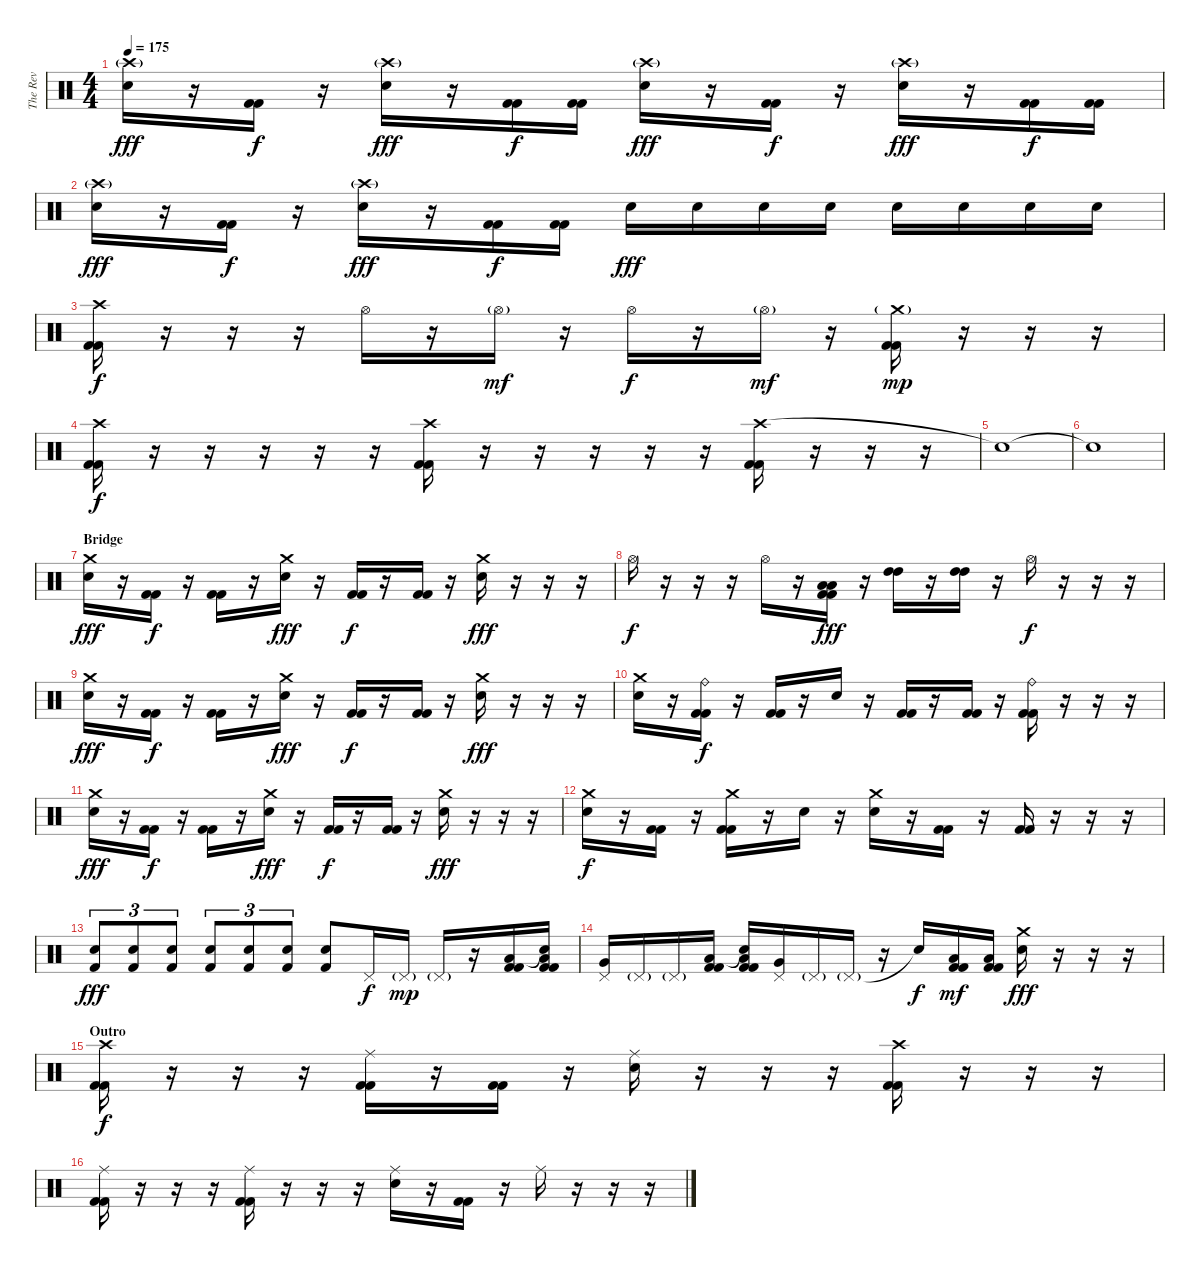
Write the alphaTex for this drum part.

\track ("The Rev" "The Rev") {instrument percussion}
\staff {score}
\articulation defaults
\ts (4 4)
\tempo 175
\clef neutral
\ks c
("Crash high (hit)"{g} "Electric Snare (hit)").16{dy fff} r.16 ("Kick (hit) 2" "Kick (hit) 2").16{dy f} r.16 ("Crash high (hit)"{g} "Electric Snare (hit)").16{dy fff} r.16 ("Kick (hit) 2" "Kick (hit) 2").16{dy f} ("Kick (hit) 2" "Kick (hit) 2").16 ("Crash high (hit)"{g} "Electric Snare (hit)").16{dy fff} r.16 ("Kick (hit) 2" "Kick (hit) 2").16{dy f} r.16 ("Crash high (hit)"{g} "Electric Snare (hit)").16{dy fff} r.16 ("Kick (hit) 2" "Kick (hit) 2").16{dy f} ("Kick (hit) 2" "Kick (hit) 2").16 |
("Crash high (hit)"{g} "Electric Snare (hit)").16{dy fff} r.16 ("Kick (hit) 2" "Kick (hit) 2").16{dy f} r.16 ("Crash high (hit)"{g} "Electric Snare (hit)").16{dy fff} r.16 ("Kick (hit) 2" "Kick (hit) 2").16{dy f} ("Kick (hit) 2" "Kick (hit) 2").16 "Electric Snare (hit)".16{dy fff} "Electric Snare (hit)".16 "Electric Snare (hit)".16 "Electric Snare (hit)".16 "Electric Snare (hit)".16 "Electric Snare (hit)".16 "Electric Snare (hit)".16 "Electric Snare (hit)".16 |
("Crash high (hit)" "Kick (hit) 2" "Kick (hit) 2").16{dy f} r.16 r.16 r.16 "Hi-Hat (open)".16 r.16 "Hi-Hat (open)"{g}.16{dy mf} r.16 "Hi-Hat (open)".16{dy f} r.16 "Hi-Hat (open)"{g}.16{dy mf} r.16 ("Crash medium (hit)"{g} "Kick (hit) 2" "Kick (hit) 2").16{dy mp} r.16 r.16 r.16 |
("Crash high (hit)" "Kick (hit) 2" "Kick (hit) 2").16{dy f} r.16 r.16 r.16 r.16 r.16 ("Crash high (hit)" "Kick (hit) 2" "Kick (hit) 2").16 r.16 r.16 r.16 r.16 r.16 ("Crash high (hit)" "Kick (hit) 2" "Kick (hit) 2").16 r.16 r.16 r.16 |
"Snare (hit)"{t}.1 |
"Snare (hit)"{t}.1 |
\section ("" "Bridge")
("Crash medium (hit)" "Electric Snare (hit)").16{dy fff} r.16 ("Kick (hit) 2" "Kick (hit) 2").16{dy f} r.16 ("Kick (hit) 2" "Kick (hit) 2").16 r.16 ("Crash medium (hit)" "Electric Snare (hit)").16{dy fff} r.16 ("Kick (hit) 2" "Kick (hit) 2").16{dy f} r.16 ("Kick (hit) 2" "Kick (hit) 2").16 r.16 ("Crash medium (hit)" "Electric Snare (hit)").16{dy fff} r.16 r.16 r.16 |
"Hi-Hat (open)".16{dy f} r.16 r.16 r.16 "Hi-Hat (open)".16 r.16 ("Low Tom (hit)" "Low Tom (hit)" "Kick (hit) 2" "Kick (hit) 2").16{dy fff} r.16 ("High Tom (hit)" "High Tom (hit)").16 r.16 ("High Tom (hit)" "High Tom (hit)").16 r.16 "Hi-Hat (open)".16{dy f} r.16 r.16 r.16 |
("Crash medium (hit)" "Electric Snare (hit)").16{dy fff} r.16 ("Kick (hit) 2" "Kick (hit) 2").16{dy f} r.16 ("Kick (hit) 2" "Kick (hit) 2").16 r.16 ("Crash medium (hit)" "Electric Snare (hit)").16{dy fff} r.16 ("Kick (hit) 2" "Kick (hit) 2").16{dy f} r.16 ("Kick (hit) 2" "Kick (hit) 2").16 r.16 ("Crash medium (hit)" "Electric Snare (hit)").16{dy fff} r.16 r.16 r.16 |
("Crash medium (hit)" "Electric Snare (hit)").16 r.16 ("Ride (bell)" "Kick (hit) 2" "Kick (hit) 2").16{dy f} r.16 ("Kick (hit) 2" "Kick (hit) 2").16 r.16 "Electric Snare (hit)".16 r.16 ("Kick (hit) 2" "Kick (hit) 2").16 r.16 ("Kick (hit) 2" "Kick (hit) 2").16 r.16 ("Ride (bell)" "Kick (hit) 2" "Kick (hit) 2").16 r.16 r.16 r.16 |
("Crash medium (hit)" "Electric Snare (hit)").16{dy fff} r.16 ("Kick (hit) 2" "Kick (hit) 2").16{dy f} r.16 ("Kick (hit) 2" "Kick (hit) 2").16 r.16 ("Crash medium (hit)" "Electric Snare (hit)").16{dy fff} r.16 ("Kick (hit) 2" "Kick (hit) 2").16{dy f} r.16 ("Kick (hit) 2" "Kick (hit) 2").16 r.16 ("Crash medium (hit)" "Electric Snare (hit)").16{dy fff} r.16 r.16 r.16 |
("Crash medium (hit)" "Electric Snare (hit)").16{dy f} r.16 ("Kick (hit) 2" "Kick (hit) 2").16 r.16 ("Crash medium (hit)" "Kick (hit) 2" "Kick (hit) 2").16 r.16 "Electric Snare (hit)".16 r.16 ("Crash medium (hit)" "Electric Snare (hit)").16 r.16 ("Kick (hit) 2" "Kick (hit) 2").16 r.16 ("Kick (hit) 2" "Kick (hit) 2").16 r.16 r.16 r.16 |
("Electric Snare (hit)" "Kick (hit) 2").8{tu (3 2) dy fff} ("Electric Snare (hit)" "Kick (hit) 2").8{tu (3 2)} ("Electric Snare (hit)" "Kick (hit) 2").8{tu (3 2)} ("Electric Snare (hit)" "Kick (hit) 2").8{tu (3 2)} ("Electric Snare (hit)" "Kick (hit) 2").8{tu (3 2)} ("Electric Snare (hit)" "Kick (hit) 2").8{tu (3 2)} ("Electric Snare (hit)" "Kick (hit) 2").8 "Pedal Hi-Hat (hit)".16{dy f} "Pedal Hi-Hat (hit)"{g}.16{dy mp} "Pedal Hi-Hat (hit)"{g}.16 r.16 ("Low Tom (hit)" "Kick (hit) 2" "Kick (hit) 2").16 ("Snare (hit)"{t} "Low Tom (hit)" "Kick (hit) 2" "Kick (hit) 2").16 |
("Pedal Hi-Hat (hit)" "Very Low Tom (hit)").16 "Pedal Hi-Hat (hit)"{g}.16 "Pedal Hi-Hat (hit)"{g}.16 ("Low Tom (hit)" "Kick (hit) 2" "Kick (hit) 2").16 ("Snare (hit)"{t} "Low Tom (hit)" "Kick (hit) 2" "Kick (hit) 2").16 ("Pedal Hi-Hat (hit)" "Very Low Tom (hit)").16 "Pedal Hi-Hat (hit)"{g}.16 "Pedal Hi-Hat (hit)"{g}.16 r.16 "Snare (hit)"{t}.16{dy f} ("Low Tom (hit)" "Kick (hit) 2" "Kick (hit) 2").16{dy mf} ("Low Tom (hit)" "Kick (hit) 2" "Kick (hit) 2").16 ("Crash medium (hit)" "Electric Snare (hit)").16{dy fff} r.16 r.16 r.16 |
\section ("" "Outro")
("Crash high (hit)" "Kick (hit) 2" "Kick (hit) 2").16{dy f} r.16 r.16 r.16 ("Ride (middle)" "Kick (hit) 2" "Kick (hit) 2").16 r.16 ("Kick (hit) 2" "Kick (hit) 2").16 r.16 ("Ride (middle)" "Electric Snare (hit)").16 r.16 r.16 r.16 ("Crash high (hit)" "Kick (hit) 2" "Kick (hit) 2").16 r.16 r.16 r.16 |
("Ride (middle)" "Kick (hit) 2" "Kick (hit) 2").16 r.16 r.16 r.16 ("Ride (middle)" "Kick (hit) 2" "Kick (hit) 2").16 r.16 r.16 r.16 ("Ride (middle)" "Electric Snare (hit)").16 r.16 ("Kick (hit) 2" "Kick (hit) 2").16 r.16 "Ride (middle)".16 r.16 r.16 r.16
